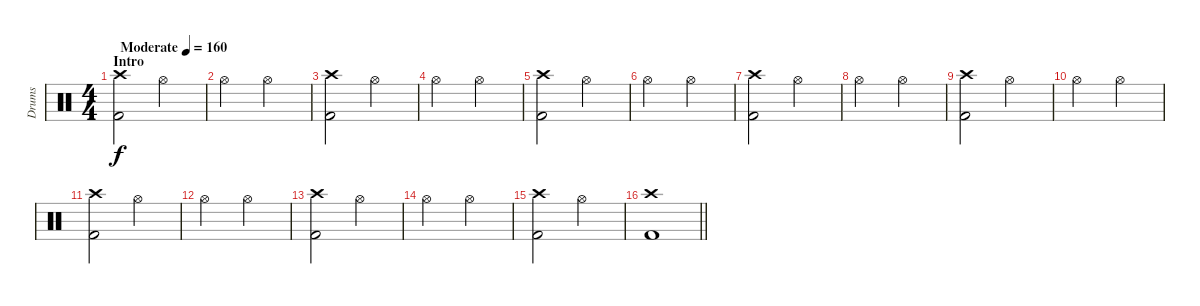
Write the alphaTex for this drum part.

\track ("Drums" "Drums") {instrument percussion}
\staff {score}
\articulation defaults
\ts (4 4)
\section ("" "Intro")
\tempo (160 "Moderate")
\clef neutral
\ks c
("Crash high (hit)" "Kick (hit) 2").2{dy f} "Hi-Hat (open)".2 |
"Hi-Hat (open)".2 "Hi-Hat (open)".2 |
("Crash high (hit)" "Kick (hit) 2").2 "Hi-Hat (open)".2 |
"Hi-Hat (open)".2 "Hi-Hat (open)".2 |
("Crash high (hit)" "Kick (hit) 2").2 "Hi-Hat (open)".2 |
"Hi-Hat (open)".2 "Hi-Hat (open)".2 |
("Crash high (hit)" "Kick (hit) 2").2 "Hi-Hat (open)".2 |
"Hi-Hat (open)".2 "Hi-Hat (open)".2 |
("Crash high (hit)" "Kick (hit) 2").2 "Hi-Hat (open)".2 |
"Hi-Hat (open)".2 "Hi-Hat (open)".2 |
("Crash high (hit)" "Kick (hit) 2").2 "Hi-Hat (open)".2 |
"Hi-Hat (open)".2 "Hi-Hat (open)".2 |
("Crash high (hit)" "Kick (hit) 2").2 "Hi-Hat (open)".2 |
"Hi-Hat (open)".2 "Hi-Hat (open)".2 |
("Crash high (hit)" "Kick (hit) 2").2 "Hi-Hat (open)".2 |
\barLineRight lightlight
("Crash high (hit)" "Kick (hit) 2").1
